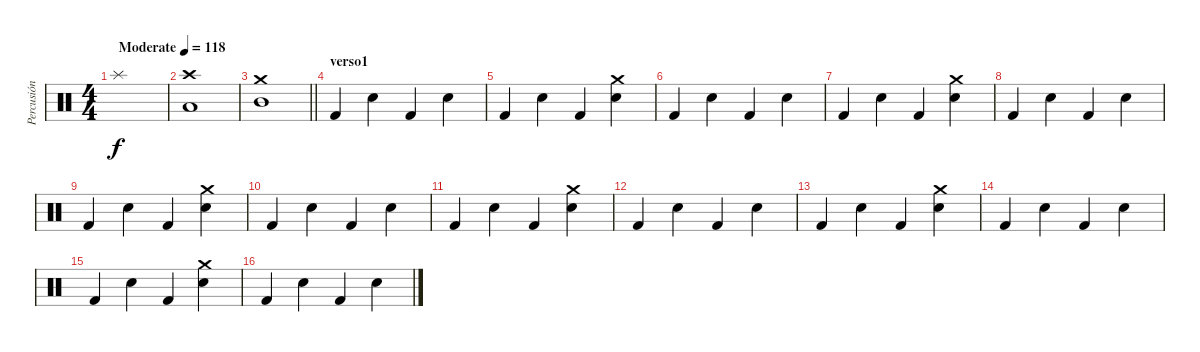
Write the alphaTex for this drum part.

\track ("Percusión" "Percusión") {instrument percussion}
\staff {score}
\articulation defaults
\ts (4 4)
\tempo (118 "Moderate")
\clef neutral
\ks c "Splash (hit)".1{dy f}
|
("Crash high (hit)" "Low Tom (hit)").1 |
\barLineRight lightlight
("Crash medium (hit)" "Mid Tom (hit)").1 |
\section ("" "verso1")
"Kick (hit) 2".4 "Hand Clap (hit)".4 "Kick (hit) 2".4 "Hand Clap (hit)".4 |
"Kick (hit) 2".4 "Hand Clap (hit)".4 "Kick (hit) 2".4 ("Hand Clap (hit)" "Crash medium (hit)").4 |
"Kick (hit) 2".4 "Hand Clap (hit)".4 "Kick (hit) 2".4 "Hand Clap (hit)".4 |
"Kick (hit) 2".4 "Hand Clap (hit)".4 "Kick (hit) 2".4 ("Hand Clap (hit)" "Crash medium (hit)").4 |
"Kick (hit) 2".4 "Hand Clap (hit)".4 "Kick (hit) 2".4 "Hand Clap (hit)".4 |
"Kick (hit) 2".4 "Hand Clap (hit)".4 "Kick (hit) 2".4 ("Hand Clap (hit)" "Crash medium (hit)").4 |
"Kick (hit) 2".4 "Hand Clap (hit)".4 "Kick (hit) 2".4 "Hand Clap (hit)".4 |
"Kick (hit) 2".4 "Hand Clap (hit)".4 "Kick (hit) 2".4 ("Hand Clap (hit)" "Crash medium (hit)").4 |
"Kick (hit) 2".4 "Hand Clap (hit)".4 "Kick (hit) 2".4 "Hand Clap (hit)".4 |
"Kick (hit) 2".4 "Hand Clap (hit)".4 "Kick (hit) 2".4 ("Hand Clap (hit)" "Crash medium (hit)").4 |
"Kick (hit) 2".4 "Hand Clap (hit)".4 "Kick (hit) 2".4 "Hand Clap (hit)".4 |
"Kick (hit) 2".4 "Hand Clap (hit)".4 "Kick (hit) 2".4 ("Hand Clap (hit)" "Crash medium (hit)").4 |
"Kick (hit) 2".4 "Hand Clap (hit)".4 "Kick (hit) 2".4 "Hand Clap (hit)".4
